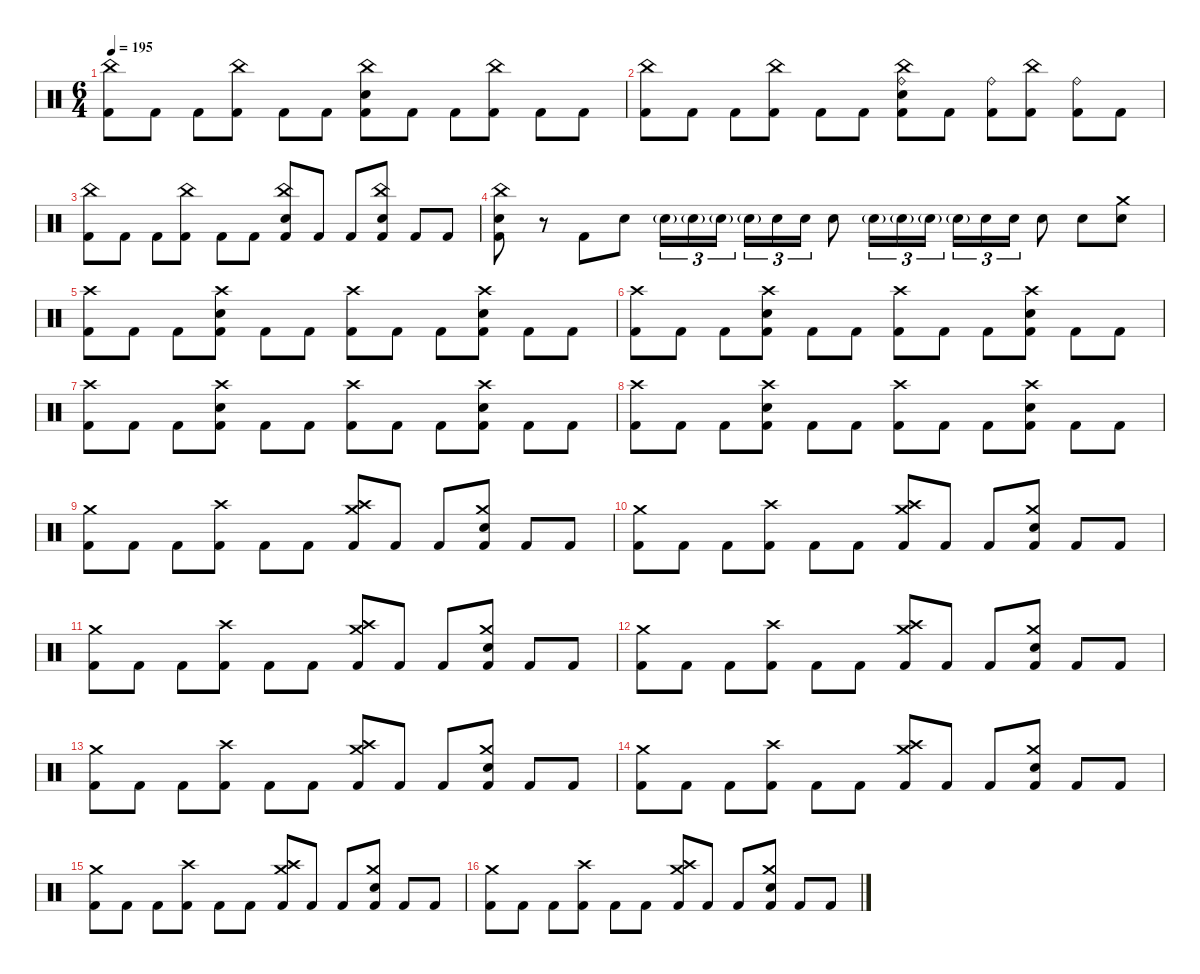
\defaultSystemsLayout 4
\hideDynamics
\bracketExtendMode nobrackets
\singleTrackTrackNamePolicy hidden
\multiTrackTrackNamePolicy hidden
\firstSystemTrackNameMode fullname
\firstSystemTrackNameOrientation horizontal
\otherSystemsTrackNameOrientation horizontal
\track ("Drums" "drm.") {instrument percussion}
\staff {score}
\articulation defaults
\ts (6 4)
\tempo 195
\clef neutral
\ks c
("China (hit)" "Kick (hit) 2").8{dy f beam Down} "Kick (hit) 2".8{beam Down} "Kick (hit) 2".8{beam Down} ("China (hit)" "Kick (hit) 2").8{beam Down} "Kick (hit) 2".8{beam Down} "Kick (hit) 2".8{beam Down} ("China (hit)" "Snare (hit) 2" "Kick (hit) 2").8{beam Down} "Kick (hit) 2".8{beam Down} "Kick (hit) 2".8{beam Down} ("China (hit)" "Kick (hit) 2").8{beam Down} "Kick (hit) 2".8{beam Down} "Kick (hit) 2".8{beam Down} |
("China (hit)" "Kick (hit) 2").8{beam Down} "Kick (hit) 2".8{beam Down} "Kick (hit) 2".8{beam Down} ("China (hit)" "Kick (hit) 2").8{beam Down} "Kick (hit) 2".8{beam Down} "Kick (hit) 2".8{beam Down} ("China (hit)" "Ride (bell)" "Snare (hit) 2" "Kick (hit) 2").8{beam Down} "Kick (hit) 2".8{beam Down} ("Ride (bell)" "Kick (hit) 2").8{beam Down} ("China (hit)" "Kick (hit) 2").8{beam Down} ("Ride (bell)" "Kick (hit) 2").8{beam Down} "Kick (hit) 2".8{beam Down} |
("China (hit)" "Kick (hit) 2").8{beam Down} "Kick (hit) 2".8{beam Down} "Kick (hit) 2".8{beam Down} ("China (hit)" "Kick (hit) 2").8{beam Down} "Kick (hit) 2".8{beam Down} "Kick (hit) 2".8{beam Down} ("China (hit)" "Snare (hit) 2" "Kick (hit) 2").8{beam Up} "Kick (hit) 2".8{beam Up} "Kick (hit) 2".8{beam Up} ("China (hit)" "Snare (hit) 2" "Kick (hit) 2").8{beam Up} "Kick (hit) 2".8{beam Up} "Kick (hit) 2".8{beam Up} |
("China (hit)" "Snare (hit) 2" "Kick (hit) 2").8{beam Down} r.8{beam Down} "Kick (hit) 2".8{beam Down} "Snare (hit) 2".8{beam Down} "Snare (hit) 2"{g}.16{tu (3 2) dy mf beam Down} "Snare (hit) 2"{g}.16{tu (3 2) beam Down} "Snare (hit) 2"{g}.16{tu (3 2) beam Down} "Snare (hit) 2"{g}.16{tu (3 2) beam Down} "Snare (hit) 2".16{tu (3 2) dy f beam Down} "Snare (hit) 2".16{tu (3 2) beam Down} "Snare (hit) 2".8{beam Down} "Snare (hit) 2"{g}.16{tu (3 2) dy mf beam Down} "Snare (hit) 2"{g}.16{tu (3 2) beam Down} "Snare (hit) 2"{g}.16{tu (3 2) beam Down} "Snare (hit) 2"{g}.16{tu (3 2) beam Down} "Snare (hit) 2".16{tu (3 2) dy f beam Down} "Snare (hit) 2".16{tu (3 2) beam Down} "Snare (hit) 2".8{beam Down} "Snare (hit) 2".8{beam Down} ("Crash medium (hit)" "Snare (hit) 2").8{beam Down} |
("Crash high (hit)" "Kick (hit) 2").8{beam Down} "Kick (hit) 2".8{beam Down} "Kick (hit) 2".8{beam Down} ("Crash high (hit)" "Snare (hit) 2" "Kick (hit) 2").8{beam Down} "Kick (hit) 2".8{beam Down} "Kick (hit) 2".8{beam Down} ("Crash high (hit)" "Kick (hit) 2").8{beam Down} "Kick (hit) 2".8{beam Down} "Kick (hit) 2".8{beam Down} ("Crash high (hit)" "Snare (hit) 2" "Kick (hit) 2").8{beam Down} "Kick (hit) 2".8{beam Down} "Kick (hit) 2".8{beam Down} |
("Crash high (hit)" "Kick (hit) 2").8{beam Down} "Kick (hit) 2".8{beam Down} "Kick (hit) 2".8{beam Down} ("Crash high (hit)" "Snare (hit) 2" "Kick (hit) 2").8{beam Down} "Kick (hit) 2".8{beam Down} "Kick (hit) 2".8{beam Down} ("Crash high (hit)" "Kick (hit) 2").8{beam Down} "Kick (hit) 2".8{beam Down} "Kick (hit) 2".8{beam Down} ("Crash high (hit)" "Snare (hit) 2" "Kick (hit) 2").8{beam Down} "Kick (hit) 2".8{beam Down} "Kick (hit) 2".8{beam Down} |
("Crash high (hit)" "Kick (hit) 2").8{beam Down} "Kick (hit) 2".8{beam Down} "Kick (hit) 2".8{beam Down} ("Crash high (hit)" "Snare (hit) 2" "Kick (hit) 2").8{beam Down} "Kick (hit) 2".8{beam Down} "Kick (hit) 2".8{beam Down} ("Crash high (hit)" "Kick (hit) 2").8{beam Down} "Kick (hit) 2".8{beam Down} "Kick (hit) 2".8{beam Down} ("Crash high (hit)" "Snare (hit) 2" "Kick (hit) 2").8{beam Down} "Kick (hit) 2".8{beam Down} "Kick (hit) 2".8{beam Down} |
("Crash high (hit)" "Kick (hit) 2").8{beam Down} "Kick (hit) 2".8{beam Down} "Kick (hit) 2".8{beam Down} ("Crash high (hit)" "Snare (hit) 2" "Kick (hit) 2").8{beam Down} "Kick (hit) 2".8{beam Down} "Kick (hit) 2".8{beam Down} ("Crash high (hit)" "Kick (hit) 2").8{beam Down} "Kick (hit) 2".8{beam Down} "Kick (hit) 2".8{beam Down} ("Crash high (hit)" "Snare (hit) 2" "Kick (hit) 2").8{beam Down} "Kick (hit) 2".8{beam Down} "Kick (hit) 2".8{beam Down} |
("Crash medium (hit)" "Kick (hit) 2").8{beam Down} "Kick (hit) 2".8{beam Down} "Kick (hit) 2".8{beam Down} ("Crash high (hit)" "Kick (hit) 2").8{beam Down} "Kick (hit) 2".8{beam Down} "Kick (hit) 2".8{beam Down} ("Crash medium (hit)" "Crash high (hit)" "Kick (hit) 2").8{beam Up} "Kick (hit) 2".8{beam Up} "Kick (hit) 2".8{beam Up} ("Crash medium (hit)" "Snare (hit) 2" "Kick (hit) 2").8{beam Up} "Kick (hit) 2".8{beam Up} "Kick (hit) 2".8{beam Up} |
("Crash medium (hit)" "Kick (hit) 2").8{beam Down} "Kick (hit) 2".8{beam Down} "Kick (hit) 2".8{beam Down} ("Crash high (hit)" "Kick (hit) 2").8{beam Down} "Kick (hit) 2".8{beam Down} "Kick (hit) 2".8{beam Down} ("Crash medium (hit)" "Crash high (hit)" "Kick (hit) 2").8{beam Up} "Kick (hit) 2".8{beam Up} "Kick (hit) 2".8{beam Up} ("Crash medium (hit)" "Snare (hit) 2" "Kick (hit) 2").8{beam Up} "Kick (hit) 2".8{beam Up} "Kick (hit) 2".8{beam Up} |
("Crash medium (hit)" "Kick (hit) 2").8{beam Down} "Kick (hit) 2".8{beam Down} "Kick (hit) 2".8{beam Down} ("Crash high (hit)" "Kick (hit) 2").8{beam Down} "Kick (hit) 2".8{beam Down} "Kick (hit) 2".8{beam Down} ("Crash medium (hit)" "Crash high (hit)" "Kick (hit) 2").8{beam Up} "Kick (hit) 2".8{beam Up} "Kick (hit) 2".8{beam Up} ("Crash medium (hit)" "Snare (hit) 2" "Kick (hit) 2").8{beam Up} "Kick (hit) 2".8{beam Up} "Kick (hit) 2".8{beam Up} |
("Crash medium (hit)" "Kick (hit) 2").8{beam Down} "Kick (hit) 2".8{beam Down} "Kick (hit) 2".8{beam Down} ("Crash high (hit)" "Kick (hit) 2").8{beam Down} "Kick (hit) 2".8{beam Down} "Kick (hit) 2".8{beam Down} ("Crash medium (hit)" "Crash high (hit)" "Kick (hit) 2").8{beam Up} "Kick (hit) 2".8{beam Up} "Kick (hit) 2".8{beam Up} ("Crash medium (hit)" "Snare (hit) 2" "Kick (hit) 2").8{beam Up} "Kick (hit) 2".8{beam Up} "Kick (hit) 2".8{beam Up} |
("Crash medium (hit)" "Kick (hit) 2").8{beam Down} "Kick (hit) 2".8{beam Down} "Kick (hit) 2".8{beam Down} ("Crash high (hit)" "Kick (hit) 2").8{beam Down} "Kick (hit) 2".8{beam Down} "Kick (hit) 2".8{beam Down} ("Crash medium (hit)" "Crash high (hit)" "Kick (hit) 2").8{beam Up} "Kick (hit) 2".8{beam Up} "Kick (hit) 2".8{beam Up} ("Crash medium (hit)" "Snare (hit) 2" "Kick (hit) 2").8{beam Up} "Kick (hit) 2".8{beam Up} "Kick (hit) 2".8{beam Up} |
("Crash medium (hit)" "Kick (hit) 2").8{beam Down} "Kick (hit) 2".8{beam Down} "Kick (hit) 2".8{beam Down} ("Crash high (hit)" "Kick (hit) 2").8{beam Down} "Kick (hit) 2".8{beam Down} "Kick (hit) 2".8{beam Down} ("Crash medium (hit)" "Crash high (hit)" "Kick (hit) 2").8{beam Up} "Kick (hit) 2".8{beam Up} "Kick (hit) 2".8{beam Up} ("Crash medium (hit)" "Snare (hit) 2" "Kick (hit) 2").8{beam Up} "Kick (hit) 2".8{beam Up} "Kick (hit) 2".8{beam Up} |
("Crash medium (hit)" "Kick (hit) 2").8{beam Down} "Kick (hit) 2".8{beam Down} "Kick (hit) 2".8{beam Down} ("Crash high (hit)" "Kick (hit) 2").8{beam Down} "Kick (hit) 2".8{beam Down} "Kick (hit) 2".8{beam Down} ("Crash medium (hit)" "Crash high (hit)" "Kick (hit) 2").8{beam Up} "Kick (hit) 2".8{beam Up} "Kick (hit) 2".8{beam Up} ("Crash medium (hit)" "Snare (hit) 2" "Kick (hit) 2").8{beam Up} "Kick (hit) 2".8{beam Up} "Kick (hit) 2".8{beam Up} |
("Crash medium (hit)" "Kick (hit) 2").8{beam Down} "Kick (hit) 2".8{beam Down} "Kick (hit) 2".8{beam Down} ("Crash high (hit)" "Kick (hit) 2").8{beam Down} "Kick (hit) 2".8{beam Down} "Kick (hit) 2".8{beam Down} ("Crash medium (hit)" "Crash high (hit)" "Kick (hit) 2").8{beam Up} "Kick (hit) 2".8{beam Up} "Kick (hit) 2".8{beam Up} ("Crash medium (hit)" "Snare (hit) 2" "Kick (hit) 2").8{beam Up} "Kick (hit) 2".8{beam Up} "Kick (hit) 2".8{beam Up}
